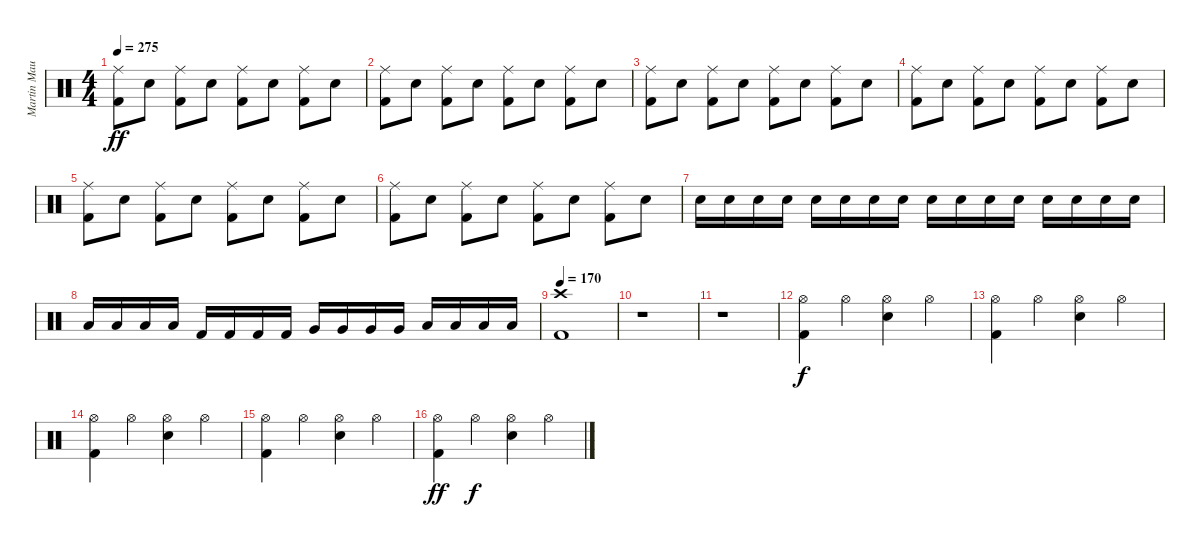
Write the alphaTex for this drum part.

\track ("Martin Maurais " "Martin Mau") {instrument percussion}
\staff {score}
\articulation defaults
\ts (4 4)
\tempo 275
\clef neutral
\ks c
("Ride (middle)" "Kick (hit) 2").8{dy ff} "Snare (hit) 2".8 ("Ride (middle)" "Kick (hit) 2").8 "Snare (hit) 2".8 ("Ride (middle)" "Kick (hit) 2").8 "Snare (hit) 2".8 ("Ride (middle)" "Kick (hit) 2").8 "Snare (hit) 2".8 |
("Ride (middle)" "Kick (hit) 2").8 "Snare (hit) 2".8 ("Ride (middle)" "Kick (hit) 2").8 "Snare (hit) 2".8 ("Ride (middle)" "Kick (hit) 2").8 "Snare (hit) 2".8 ("Ride (middle)" "Kick (hit) 2").8 "Snare (hit) 2".8 |
("Ride (middle)" "Kick (hit) 2").8 "Snare (hit) 2".8 ("Ride (middle)" "Kick (hit) 2").8 "Snare (hit) 2".8 ("Ride (middle)" "Kick (hit) 2").8 "Snare (hit) 2".8 ("Ride (middle)" "Kick (hit) 2").8 "Snare (hit) 2".8 |
("Ride (middle)" "Kick (hit) 2").8 "Snare (hit) 2".8 ("Ride (middle)" "Kick (hit) 2").8 "Snare (hit) 2".8 ("Ride (middle)" "Kick (hit) 2").8 "Snare (hit) 2".8 ("Ride (middle)" "Kick (hit) 2").8 "Snare (hit) 2".8 |
("Ride (middle)" "Kick (hit) 2").8 "Snare (hit) 2".8 ("Ride (middle)" "Kick (hit) 2").8 "Snare (hit) 2".8 ("Ride (middle)" "Kick (hit) 2").8 "Snare (hit) 2".8 ("Ride (middle)" "Kick (hit) 2").8 "Snare (hit) 2".8 |
("Ride (middle)" "Kick (hit) 2").8 "Snare (hit) 2".8 ("Ride (middle)" "Kick (hit) 2").8 "Snare (hit) 2".8 ("Ride (middle)" "Kick (hit) 2").8 "Snare (hit) 2".8 ("Ride (middle)" "Kick (hit) 2").8 "Snare (hit) 2".8 |
"Snare (hit) 2".16 "Snare (hit) 2".16 "Snare (hit) 2".16 "Snare (hit) 2".16 "Snare (hit) 2".16 "Snare (hit) 2".16 "Snare (hit) 2".16 "Snare (hit) 2".16 "Snare (hit) 2".16 "Snare (hit) 2".16 "Snare (hit) 2".16 "Snare (hit) 2".16 "Snare (hit) 2".16 "Snare (hit) 2".16 "Snare (hit) 2".16 "Snare (hit) 2".16 |
"Low Tom (hit)".16 "Low Tom (hit)".16 "Low Tom (hit)".16 "Low Tom (hit)".16 "Kick (hit) 2".16 "Kick (hit) 2".16 "Kick (hit) 2".16 "Kick (hit) 2".16 "Very Low Tom (hit)".16 "Very Low Tom (hit)".16 "Very Low Tom (hit)".16 "Very Low Tom (hit)".16 "Low Floor Tom (hit)".16 "Low Floor Tom (hit)".16 "Low Floor Tom (hit)".16 "Low Floor Tom (hit)".16 |
\tempo 170
("Crash high (hit)" "Kick (hit) 2").1 |
r.1 |
r.1 |
("Hi-Hat (open)" "Kick (hit) 2").4{dy f} "Hi-Hat (open)".4 ("Hi-Hat (open)" "Snare (hit) 2").4 "Hi-Hat (open)".4 |
("Hi-Hat (open)" "Kick (hit) 2").4 "Hi-Hat (open)".4 ("Hi-Hat (open)" "Snare (hit) 2").4 "Hi-Hat (open)".4 |
("Hi-Hat (open)" "Kick (hit) 2").4 "Hi-Hat (open)".4 ("Hi-Hat (open)" "Snare (hit) 2").4 "Hi-Hat (open)".4 |
("Hi-Hat (open)" "Kick (hit) 2").4 "Hi-Hat (open)".4 ("Hi-Hat (open)" "Snare (hit) 2").4 "Hi-Hat (open)".4 |
("Hi-Hat (open)" "Kick (hit) 2").4{dy ff} "Hi-Hat (open)".4{dy f} ("Hi-Hat (open)" "Snare (hit) 2").4 "Hi-Hat (open)".4
